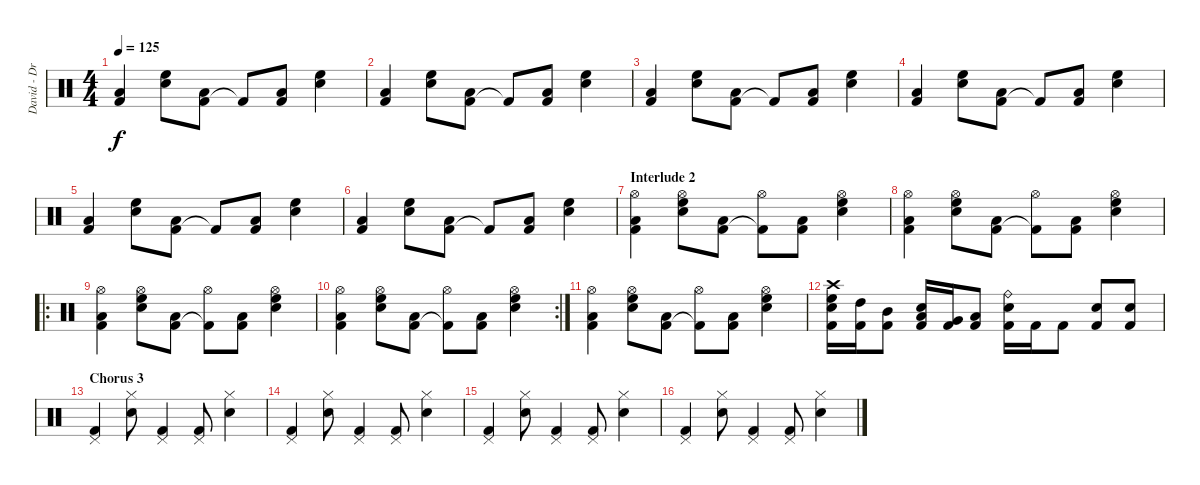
\track ("David - Drums" "David - Dr") {instrument percussion}
\staff {score}
\articulation defaults
\ts (4 4)
\tempo 125
\clef neutral
\ks c
("Kick (hit) 2" "Low Floor Tom (hit)").4{dy f} ("Snare (hit) 2" "High Floor Tom (hit)").8 ("Kick (hit) 2" "Low Floor Tom (hit)").8 "Kick (hit) 2"{t}.8 ("Kick (hit) 2" "Low Floor Tom (hit)").8 ("Snare (hit) 2" "High Floor Tom (hit)").4 |
("Kick (hit) 2" "Low Floor Tom (hit)").4 ("Snare (hit) 2" "High Floor Tom (hit)").8 ("Kick (hit) 2" "Low Floor Tom (hit)").8 "Kick (hit) 2"{t}.8 ("Kick (hit) 2" "Low Floor Tom (hit)").8 ("Snare (hit) 2" "High Floor Tom (hit)").4 |
("Kick (hit) 2" "Low Floor Tom (hit)").4 ("Snare (hit) 2" "High Floor Tom (hit)").8 ("Kick (hit) 2" "Low Floor Tom (hit)").8 "Kick (hit) 2"{t}.8 ("Kick (hit) 2" "Low Floor Tom (hit)").8 ("Snare (hit) 2" "High Floor Tom (hit)").4 |
("Kick (hit) 2" "Low Floor Tom (hit)").4 ("Snare (hit) 2" "High Floor Tom (hit)").8 ("Kick (hit) 2" "Low Floor Tom (hit)").8 "Kick (hit) 2"{t}.8 ("Kick (hit) 2" "Low Floor Tom (hit)").8 ("Snare (hit) 2" "High Floor Tom (hit)").4 |
("Kick (hit) 2" "Low Floor Tom (hit)").4 ("Snare (hit) 2" "High Floor Tom (hit)").8 ("Kick (hit) 2" "Low Floor Tom (hit)").8 "Kick (hit) 2"{t}.8 ("Kick (hit) 2" "Low Floor Tom (hit)").8 ("Snare (hit) 2" "High Floor Tom (hit)").4 |
("Kick (hit) 2" "Low Floor Tom (hit)").4 ("Snare (hit) 2" "High Floor Tom (hit)").8 ("Kick (hit) 2" "Low Floor Tom (hit)").8 "Kick (hit) 2"{t}.8 ("Kick (hit) 2" "Low Floor Tom (hit)").8 ("Snare (hit) 2" "High Floor Tom (hit)").4 |
\section ("" "Interlude 2")
("Kick (hit) 2" "Low Floor Tom (hit)" "Hi-Hat (open)").4 ("Snare (hit) 2" "High Floor Tom (hit)" "Hi-Hat (open)").8 ("Kick (hit) 2" "Low Floor Tom (hit)").8 ("Kick (hit) 2"{t} "Hi-Hat (open)").8 ("Kick (hit) 2" "Low Floor Tom (hit)").8 ("Snare (hit) 2" "High Floor Tom (hit)" "Hi-Hat (open)").4 |
("Kick (hit) 2" "Low Floor Tom (hit)" "Hi-Hat (open)").4 ("Snare (hit) 2" "High Floor Tom (hit)" "Hi-Hat (open)").8 ("Kick (hit) 2" "Low Floor Tom (hit)").8 ("Kick (hit) 2"{t} "Hi-Hat (open)").8 ("Kick (hit) 2" "Low Floor Tom (hit)").8 ("Snare (hit) 2" "High Floor Tom (hit)" "Hi-Hat (open)").4 |
\ro
("Kick (hit) 2" "Low Floor Tom (hit)" "Hi-Hat (open)").4 ("Snare (hit) 2" "High Floor Tom (hit)" "Hi-Hat (open)").8 ("Kick (hit) 2" "Low Floor Tom (hit)").8 ("Kick (hit) 2"{t} "Hi-Hat (open)").8 ("Kick (hit) 2" "Low Floor Tom (hit)").8 ("Snare (hit) 2" "High Floor Tom (hit)" "Hi-Hat (open)").4 |
\rc 2
("Kick (hit) 2" "Low Floor Tom (hit)" "Hi-Hat (open)").4 ("Snare (hit) 2" "High Floor Tom (hit)" "Hi-Hat (open)").8 ("Kick (hit) 2" "Low Floor Tom (hit)").8 ("Kick (hit) 2"{t} "Hi-Hat (open)").8 ("Kick (hit) 2" "Low Floor Tom (hit)").8 ("Snare (hit) 2" "High Floor Tom (hit)" "Hi-Hat (open)").4 |
("Kick (hit) 2" "Low Floor Tom (hit)" "Hi-Hat (open)").4 ("Snare (hit) 2" "High Floor Tom (hit)" "Hi-Hat (open)").8 ("Kick (hit) 2" "Low Floor Tom (hit)").8 ("Kick (hit) 2"{t} "Hi-Hat (open)").8 ("Kick (hit) 2" "Low Floor Tom (hit)").8 ("Snare (hit) 2" "High Floor Tom (hit)" "Hi-Hat (open)").4 |
("Kick (hit) 2" "Electric Snare (hit)" "Crash high (hit)" "High Floor Tom (hit)").16 ("Kick (hit) 2" "High Tom (hit)").16 ("Kick (hit) 2" "Mid Tom (hit)").8 ("Kick (hit) 2" "Electric Snare (hit)" "Low Tom (hit)").16 ("Kick (hit) 2" "Very Low Tom (hit)").16 ("Kick (hit) 2" "Low Floor Tom (hit)").8 ("Kick (hit) 2" "Electric Snare (hit)" "Ride (bell)").16 "Kick (hit) 2".16 "Kick (hit) 2".8 ("Kick (hit) 2" "Electric Snare (hit)").8 ("Kick (hit) 2" "Electric Snare (hit)").8 |
\section ("" "Chorus 3")
("Kick (hit) 2" "Pedal Hi-Hat (hit)").4 ("Snare (hit) 2" "Hi-Hat (closed)").8 ("Kick (hit) 2" "Pedal Hi-Hat (hit)").4 ("Kick (hit) 2" "Pedal Hi-Hat (hit)").8 ("Snare (hit) 2" "Hi-Hat (closed)").4 |
("Kick (hit) 2" "Pedal Hi-Hat (hit)").4 ("Snare (hit) 2" "Hi-Hat (closed)").8 ("Kick (hit) 2" "Pedal Hi-Hat (hit)").4 ("Kick (hit) 2" "Pedal Hi-Hat (hit)").8 ("Snare (hit) 2" "Hi-Hat (closed)").4 |
("Kick (hit) 2" "Pedal Hi-Hat (hit)").4 ("Snare (hit) 2" "Hi-Hat (closed)").8 ("Kick (hit) 2" "Pedal Hi-Hat (hit)").4 ("Kick (hit) 2" "Pedal Hi-Hat (hit)").8 ("Snare (hit) 2" "Hi-Hat (closed)").4 |
("Kick (hit) 2" "Pedal Hi-Hat (hit)").4 ("Snare (hit) 2" "Hi-Hat (closed)").8 ("Kick (hit) 2" "Pedal Hi-Hat (hit)").4 ("Kick (hit) 2" "Pedal Hi-Hat (hit)").8 ("Snare (hit) 2" "Hi-Hat (closed)").4
